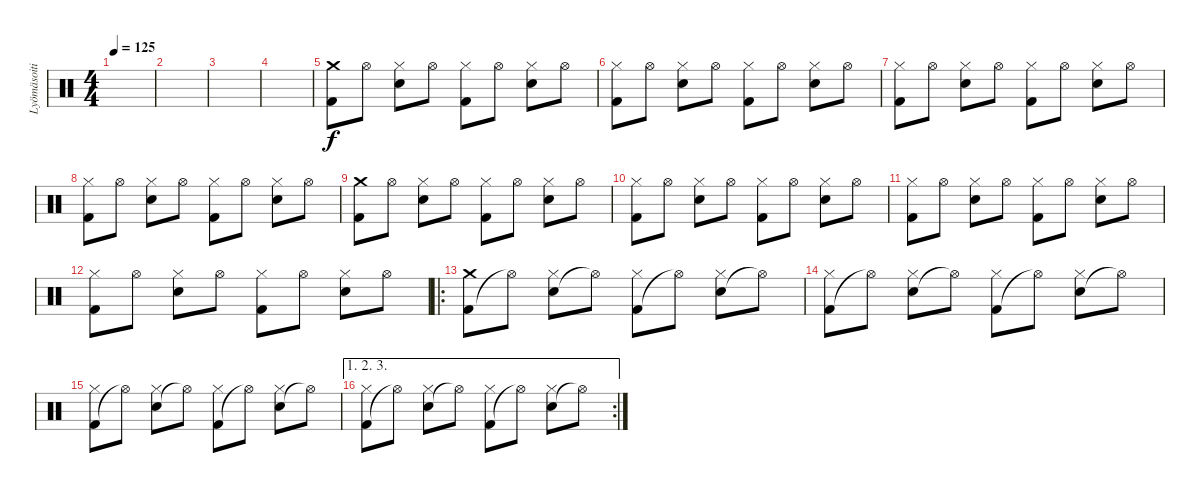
\track ("Lyömäsoitin" "Lyömäsoiti") {instrument percussion}
\staff {score}
\articulation defaults
\ts (4 4)
\tempo 125
\clef neutral
\ks c
|
|
|
|
("Kick (hit) 2" "Crash medium (hit)").8 "Hi-Hat (open)".8 ("Electric Snare (hit)" "Hi-Hat (closed)").8 "Hi-Hat (open)".8 ("Kick (hit) 2" "Hi-Hat (closed)").8 "Hi-Hat (open)".8 ("Electric Snare (hit)" "Hi-Hat (closed)").8 "Hi-Hat (open)".8 |
("Kick (hit) 2" "Hi-Hat (closed)").8 "Hi-Hat (open)".8 ("Electric Snare (hit)" "Hi-Hat (closed)").8 "Hi-Hat (open)".8 ("Kick (hit) 2" "Hi-Hat (closed)").8 "Hi-Hat (open)".8 ("Electric Snare (hit)" "Hi-Hat (closed)").8 "Hi-Hat (open)".8 |
("Kick (hit) 2" "Hi-Hat (closed)").8 "Hi-Hat (open)".8 ("Electric Snare (hit)" "Hi-Hat (closed)").8 "Hi-Hat (open)".8 ("Kick (hit) 2" "Hi-Hat (closed)").8 "Hi-Hat (open)".8 ("Electric Snare (hit)" "Hi-Hat (closed)").8 "Hi-Hat (open)".8 |
("Kick (hit) 2" "Hi-Hat (closed)").8 "Hi-Hat (open)".8 ("Electric Snare (hit)" "Hi-Hat (closed)").8 "Hi-Hat (open)".8 ("Kick (hit) 2" "Hi-Hat (closed)").8 "Hi-Hat (open)".8 ("Electric Snare (hit)" "Hi-Hat (closed)").8 "Hi-Hat (open)".8 |
("Kick (hit) 2" "Crash medium (hit)").8 "Hi-Hat (open)".8 ("Electric Snare (hit)" "Hi-Hat (closed)").8 "Hi-Hat (open)".8 ("Kick (hit) 2" "Hi-Hat (closed)").8 "Hi-Hat (open)".8 ("Electric Snare (hit)" "Hi-Hat (closed)").8 "Hi-Hat (open)".8 |
("Kick (hit) 2" "Hi-Hat (closed)").8 "Hi-Hat (open)".8 ("Electric Snare (hit)" "Hi-Hat (closed)").8 "Hi-Hat (open)".8 ("Kick (hit) 2" "Hi-Hat (closed)").8 "Hi-Hat (open)".8 ("Electric Snare (hit)" "Hi-Hat (closed)").8 "Hi-Hat (open)".8 |
("Kick (hit) 2" "Hi-Hat (closed)").8 "Hi-Hat (open)".8 ("Electric Snare (hit)" "Hi-Hat (closed)").8 "Hi-Hat (open)".8 ("Kick (hit) 2" "Hi-Hat (closed)").8 "Hi-Hat (open)".8 ("Electric Snare (hit)" "Hi-Hat (closed)").8 "Hi-Hat (open)".8 |
("Kick (hit) 2" "Hi-Hat (closed)").8 "Hi-Hat (open)".8 ("Electric Snare (hit)" "Hi-Hat (closed)").8 "Hi-Hat (open)".8 ("Kick (hit) 2" "Hi-Hat (closed)").8 "Hi-Hat (open)".8 ("Electric Snare (hit)" "Hi-Hat (closed)").8 "Hi-Hat (open)".8 |
\ro
("Kick (hit) 2" "Crash medium (hit)").8 "Hi-Hat (open)"{t}.8 ("Electric Snare (hit)" "Hi-Hat (closed)").8 "Hi-Hat (open)"{t}.8 ("Kick (hit) 2" "Hi-Hat (closed)").8 "Hi-Hat (open)"{t}.8 ("Electric Snare (hit)" "Hi-Hat (closed)").8 "Hi-Hat (open)"{t}.8 |
("Kick (hit) 2" "Hi-Hat (closed)").8 "Hi-Hat (open)"{t}.8 ("Electric Snare (hit)" "Hi-Hat (closed)").8 "Hi-Hat (open)"{t}.8 ("Kick (hit) 2" "Hi-Hat (closed)").8 "Hi-Hat (open)"{t}.8 ("Electric Snare (hit)" "Hi-Hat (closed)").8 "Hi-Hat (open)"{t}.8 |
("Kick (hit) 2" "Hi-Hat (closed)").8 "Hi-Hat (open)"{t}.8 ("Electric Snare (hit)" "Hi-Hat (closed)").8 "Hi-Hat (open)"{t}.8 ("Kick (hit) 2" "Hi-Hat (closed)").8 "Hi-Hat (open)"{t}.8 ("Electric Snare (hit)" "Hi-Hat (closed)").8 "Hi-Hat (open)"{t}.8 |
\ae (1 2 3)
\rc 2
("Kick (hit) 2" "Hi-Hat (closed)").8 "Hi-Hat (open)"{t}.8 ("Electric Snare (hit)" "Hi-Hat (closed)").8 "Hi-Hat (open)"{t}.8 ("Kick (hit) 2" "Hi-Hat (closed)").8 "Hi-Hat (open)"{t}.8 ("Electric Snare (hit)" "Hi-Hat (closed)").8 "Hi-Hat (open)"{t}.8
